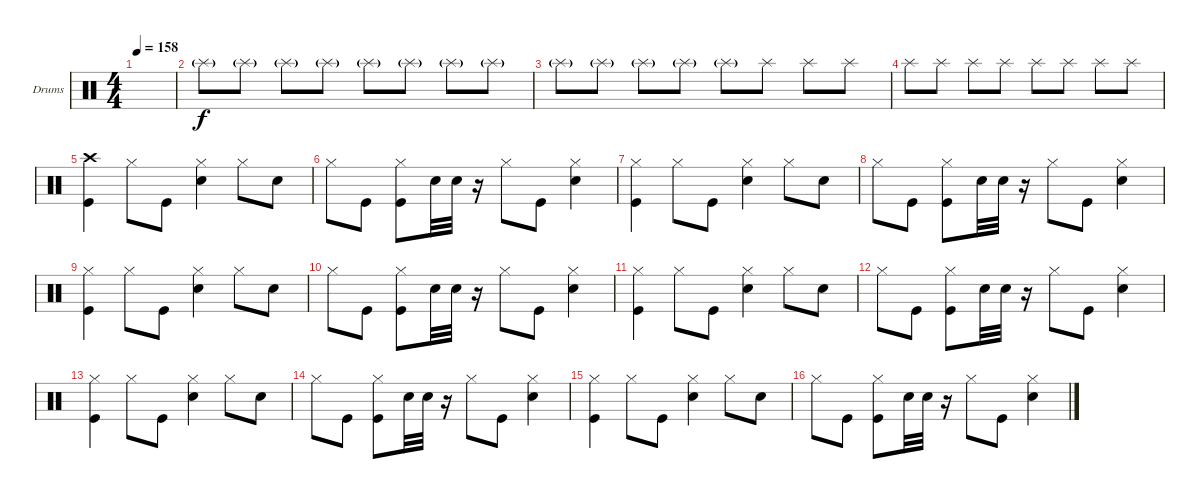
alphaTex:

\defaultSystemsLayout 4
\bracketExtendMode groupsimilarinstruments
\firstSystemTrackNameOrientation horizontal
\otherSystemsTrackNameOrientation horizontal
\track ("Drumkit" "Drums") {instrument percussion}
\staff {score}
\articulation defaults
\ts (4 4)
\tempo 158
\clef neutral
\ks c
|
"Splash (hit)"{g}.8 "Splash (hit)"{g}.8 "Splash (hit)"{g}.8 "Splash (hit)"{g}.8 "Splash (hit)"{g}.8 "Splash (hit)"{g}.8 "Splash (hit)"{g}.8 "Splash (hit)"{g}.8 |
"Splash (hit)"{g}.8 "Splash (hit)"{g}.8 "Splash (hit)"{g}.8 "Splash (hit)"{g}.8 "Splash (hit)"{g}.8 "Splash (hit)".8 "Splash (hit)".8 "Splash (hit)".8 |
"Splash (hit)".8 "Splash (hit)".8 "Splash (hit)".8 "Splash (hit)".8 "Splash (hit)".8 "Splash (hit)".8 "Splash (hit)".8 "Splash (hit)".8 |
("Crash high (hit)" "Kick (hit)").4 "Hi-Hat (closed)".8 "Kick (hit)".8 ("Hi-Hat (closed)" "Snare (hit) 2").4 "Hi-Hat (closed)".8 "Snare (hit) 2".8 |
"Hi-Hat (closed)".8 "Kick (hit)".8 ("Kick (hit)" "Hi-Hat (closed)").8 "Snare (hit) 2".32 "Snare (hit) 2".32 r.16 "Hi-Hat (closed)".8 "Kick (hit)".8 ("Hi-Hat (closed)" "Snare (hit) 2").4 |
("Hi-Hat (closed)" "Kick (hit)").4 "Hi-Hat (closed)".8 "Kick (hit)".8 ("Hi-Hat (closed)" "Snare (hit) 2").4 "Hi-Hat (closed)".8 "Snare (hit) 2".8 |
"Hi-Hat (closed)".8 "Kick (hit)".8 ("Kick (hit)" "Hi-Hat (closed)").8 "Snare (hit) 2".32 "Snare (hit) 2".32 r.16 "Hi-Hat (closed)".8 "Kick (hit)".8 ("Hi-Hat (closed)" "Snare (hit) 2").4 |
("Hi-Hat (closed)" "Kick (hit)").4 "Hi-Hat (closed)".8 "Kick (hit)".8 ("Hi-Hat (closed)" "Snare (hit) 2").4 "Hi-Hat (closed)".8 "Snare (hit) 2".8 |
"Hi-Hat (closed)".8 "Kick (hit)".8 ("Kick (hit)" "Hi-Hat (closed)").8 "Snare (hit) 2".32 "Snare (hit) 2".32 r.16 "Hi-Hat (closed)".8 "Kick (hit)".8 ("Hi-Hat (closed)" "Snare (hit) 2").4 |
("Hi-Hat (closed)" "Kick (hit)").4 "Hi-Hat (closed)".8 "Kick (hit)".8 ("Hi-Hat (closed)" "Snare (hit) 2").4 "Hi-Hat (closed)".8 "Snare (hit) 2".8 |
"Hi-Hat (closed)".8 "Kick (hit)".8 ("Kick (hit)" "Hi-Hat (closed)").8 "Snare (hit) 2".32 "Snare (hit) 2".32 r.16 "Hi-Hat (closed)".8 "Kick (hit)".8 ("Hi-Hat (closed)" "Snare (hit) 2").4 |
("Hi-Hat (closed)" "Kick (hit)").4 "Hi-Hat (closed)".8 "Kick (hit)".8 ("Hi-Hat (closed)" "Snare (hit) 2").4 "Hi-Hat (closed)".8 "Snare (hit) 2".8 |
"Hi-Hat (closed)".8 "Kick (hit)".8 ("Kick (hit)" "Hi-Hat (closed)").8 "Snare (hit) 2".32 "Snare (hit) 2".32 r.16 "Hi-Hat (closed)".8 "Kick (hit)".8 ("Hi-Hat (closed)" "Snare (hit) 2").4 |
("Hi-Hat (closed)" "Kick (hit)").4 "Hi-Hat (closed)".8 "Kick (hit)".8 ("Hi-Hat (closed)" "Snare (hit) 2").4 "Hi-Hat (closed)".8 "Snare (hit) 2".8 |
"Hi-Hat (closed)".8 "Kick (hit)".8 ("Kick (hit)" "Hi-Hat (closed)").8 "Snare (hit) 2".32 "Snare (hit) 2".32 r.16 "Hi-Hat (closed)".8 "Kick (hit)".8 ("Hi-Hat (closed)" "Snare (hit) 2").4
